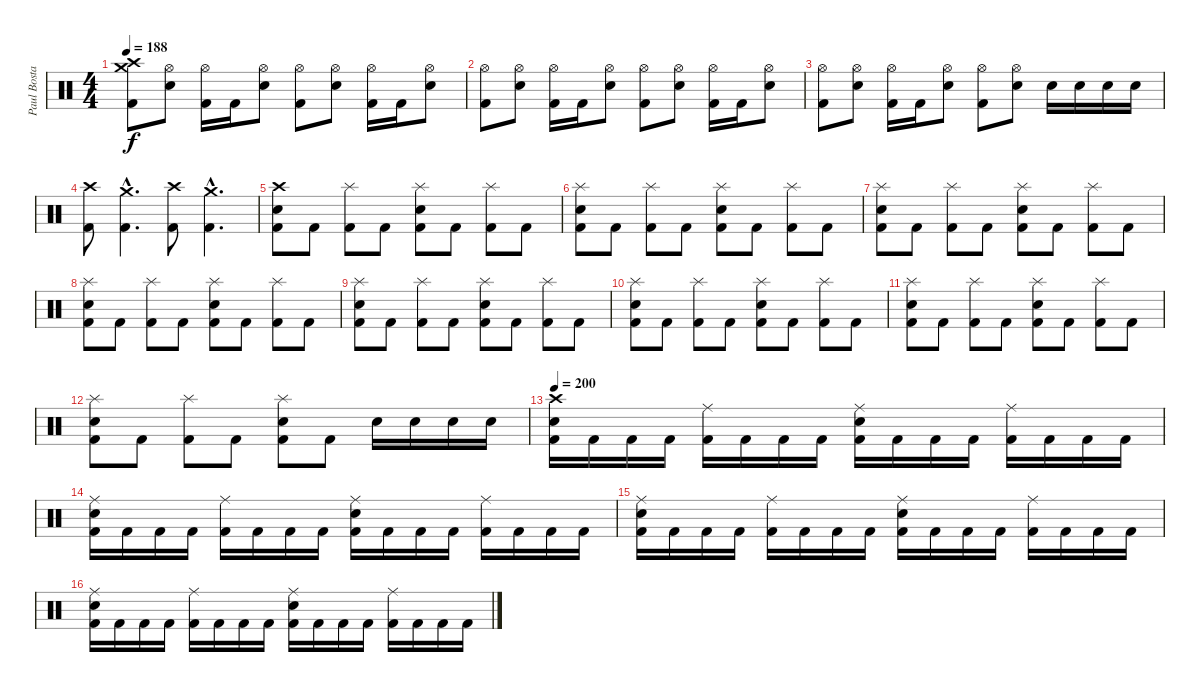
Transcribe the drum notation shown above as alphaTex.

\track ("Paul Bostaph" "Paul Bosta") {instrument percussion}
\staff {score}
\articulation defaults
\ts (4 4)
\tempo 188
\clef neutral
\ks c
("Crash high (hit)" "Crash medium (hit)" "Kick (hit) 2").8{dy f} ("Hi-Hat (open)" "Electric Snare (hit)").8 ("Hi-Hat (open)" "Kick (hit) 2").16 "Kick (hit) 2".16 ("Hi-Hat (open)" "Electric Snare (hit)").8 ("Hi-Hat (open)" "Kick (hit) 2").8 ("Hi-Hat (open)" "Electric Snare (hit)").8 ("Hi-Hat (open)" "Kick (hit) 2").16 "Kick (hit) 2".16 ("Hi-Hat (open)" "Electric Snare (hit)").8 |
("Hi-Hat (open)" "Kick (hit) 2").8 ("Hi-Hat (open)" "Electric Snare (hit)").8 ("Hi-Hat (open)" "Kick (hit) 2").16 "Kick (hit) 2".16 ("Hi-Hat (open)" "Electric Snare (hit)").8 ("Hi-Hat (open)" "Kick (hit) 2").8 ("Hi-Hat (open)" "Electric Snare (hit)").8 ("Hi-Hat (open)" "Kick (hit) 2").16 "Kick (hit) 2".16 ("Hi-Hat (open)" "Electric Snare (hit)").8 |
("Hi-Hat (open)" "Kick (hit) 2").8 ("Hi-Hat (open)" "Electric Snare (hit)").8 ("Hi-Hat (open)" "Kick (hit) 2").16 "Kick (hit) 2".16 ("Hi-Hat (open)" "Electric Snare (hit)").8 ("Hi-Hat (open)" "Kick (hit) 2").8 ("Hi-Hat (open)" "Electric Snare (hit)").8 "Electric Snare (hit)".16 "Electric Snare (hit)".16 "Electric Snare (hit)".16 "Electric Snare (hit)".16 |
("Crash high (hit)" "Kick (hit) 2").8 ("Crash medium (hit)"{hac} "Kick (hit) 2"{hac}).4{d} ("Crash high (hit)" "Kick (hit) 2").8 ("Crash medium (hit)"{hac} "Kick (hit) 2"{hac}).4{d} |
("Electric Snare (hit)" "Kick (hit) 2" "Crash high (hit)").8 "Kick (hit) 2".8 ("Kick (hit) 2" "Splash (hit)").8 "Kick (hit) 2".8 ("Kick (hit) 2" "Electric Snare (hit)" "Splash (hit)").8 "Kick (hit) 2".8 ("Kick (hit) 2" "Splash (hit)").8 "Kick (hit) 2".8 |
("Electric Snare (hit)" "Kick (hit) 2" "Splash (hit)").8 "Kick (hit) 2".8 ("Kick (hit) 2" "Splash (hit)").8 "Kick (hit) 2".8 ("Kick (hit) 2" "Electric Snare (hit)" "Splash (hit)").8 "Kick (hit) 2".8 ("Kick (hit) 2" "Splash (hit)").8 "Kick (hit) 2".8 |
("Electric Snare (hit)" "Kick (hit) 2" "Splash (hit)").8 "Kick (hit) 2".8 ("Kick (hit) 2" "Splash (hit)").8 "Kick (hit) 2".8 ("Kick (hit) 2" "Electric Snare (hit)" "Splash (hit)").8 "Kick (hit) 2".8 ("Kick (hit) 2" "Splash (hit)").8 "Kick (hit) 2".8 |
("Electric Snare (hit)" "Kick (hit) 2" "Splash (hit)").8 "Kick (hit) 2".8 ("Kick (hit) 2" "Splash (hit)").8 "Kick (hit) 2".8 ("Kick (hit) 2" "Electric Snare (hit)" "Splash (hit)").8 "Kick (hit) 2".8 ("Kick (hit) 2" "Splash (hit)").8 "Kick (hit) 2".8 |
("Electric Snare (hit)" "Kick (hit) 2" "Splash (hit)").8 "Kick (hit) 2".8 ("Kick (hit) 2" "Splash (hit)").8 "Kick (hit) 2".8 ("Kick (hit) 2" "Electric Snare (hit)" "Splash (hit)").8 "Kick (hit) 2".8 ("Kick (hit) 2" "Splash (hit)").8 "Kick (hit) 2".8 |
("Electric Snare (hit)" "Kick (hit) 2" "Splash (hit)").8 "Kick (hit) 2".8 ("Kick (hit) 2" "Splash (hit)").8 "Kick (hit) 2".8 ("Kick (hit) 2" "Electric Snare (hit)" "Splash (hit)").8 "Kick (hit) 2".8 ("Kick (hit) 2" "Splash (hit)").8 "Kick (hit) 2".8 |
("Electric Snare (hit)" "Kick (hit) 2" "Splash (hit)").8 "Kick (hit) 2".8 ("Kick (hit) 2" "Splash (hit)").8 "Kick (hit) 2".8 ("Kick (hit) 2" "Electric Snare (hit)" "Splash (hit)").8 "Kick (hit) 2".8 ("Kick (hit) 2" "Splash (hit)").8 "Kick (hit) 2".8 |
("Electric Snare (hit)" "Kick (hit) 2" "Splash (hit)").8 "Kick (hit) 2".8 ("Kick (hit) 2" "Splash (hit)").8 "Kick (hit) 2".8 ("Kick (hit) 2" "Electric Snare (hit)" "Splash (hit)").8 "Kick (hit) 2".8 "Electric Snare (hit)".16 "Electric Snare (hit)".16 "Electric Snare (hit)".16 "Electric Snare (hit)".16 |
\tempo 200
("Electric Snare (hit)" "Kick (hit) 2" "Crash high (hit)").16 "Kick (hit) 2".16 "Kick (hit) 2".16 "Kick (hit) 2".16 ("Kick (hit) 2" "Ride (middle)").16 "Kick (hit) 2".16 "Kick (hit) 2".16 "Kick (hit) 2".16 ("Electric Snare (hit)" "Kick (hit) 2" "Ride (middle)").16 "Kick (hit) 2".16 "Kick (hit) 2".16 "Kick (hit) 2".16 ("Kick (hit) 2" "Ride (middle)").16 "Kick (hit) 2".16 "Kick (hit) 2".16 "Kick (hit) 2".16 |
("Electric Snare (hit)" "Kick (hit) 2" "Ride (middle)").16 "Kick (hit) 2".16 "Kick (hit) 2".16 "Kick (hit) 2".16 ("Kick (hit) 2" "Ride (middle)").16 "Kick (hit) 2".16 "Kick (hit) 2".16 "Kick (hit) 2".16 ("Electric Snare (hit)" "Kick (hit) 2" "Ride (middle)").16 "Kick (hit) 2".16 "Kick (hit) 2".16 "Kick (hit) 2".16 ("Kick (hit) 2" "Ride (middle)").16 "Kick (hit) 2".16 "Kick (hit) 2".16 "Kick (hit) 2".16 |
("Electric Snare (hit)" "Kick (hit) 2" "Ride (middle)").16 "Kick (hit) 2".16 "Kick (hit) 2".16 "Kick (hit) 2".16 ("Kick (hit) 2" "Ride (middle)").16 "Kick (hit) 2".16 "Kick (hit) 2".16 "Kick (hit) 2".16 ("Electric Snare (hit)" "Kick (hit) 2" "Ride (middle)").16 "Kick (hit) 2".16 "Kick (hit) 2".16 "Kick (hit) 2".16 ("Kick (hit) 2" "Ride (middle)").16 "Kick (hit) 2".16 "Kick (hit) 2".16 "Kick (hit) 2".16 |
("Electric Snare (hit)" "Kick (hit) 2" "Ride (middle)").16 "Kick (hit) 2".16 "Kick (hit) 2".16 "Kick (hit) 2".16 ("Kick (hit) 2" "Ride (middle)").16 "Kick (hit) 2".16 "Kick (hit) 2".16 "Kick (hit) 2".16 ("Electric Snare (hit)" "Kick (hit) 2" "Ride (middle)").16 "Kick (hit) 2".16 "Kick (hit) 2".16 "Kick (hit) 2".16 ("Kick (hit) 2" "Ride (middle)").16 "Kick (hit) 2".16 "Kick (hit) 2".16 "Kick (hit) 2".16
